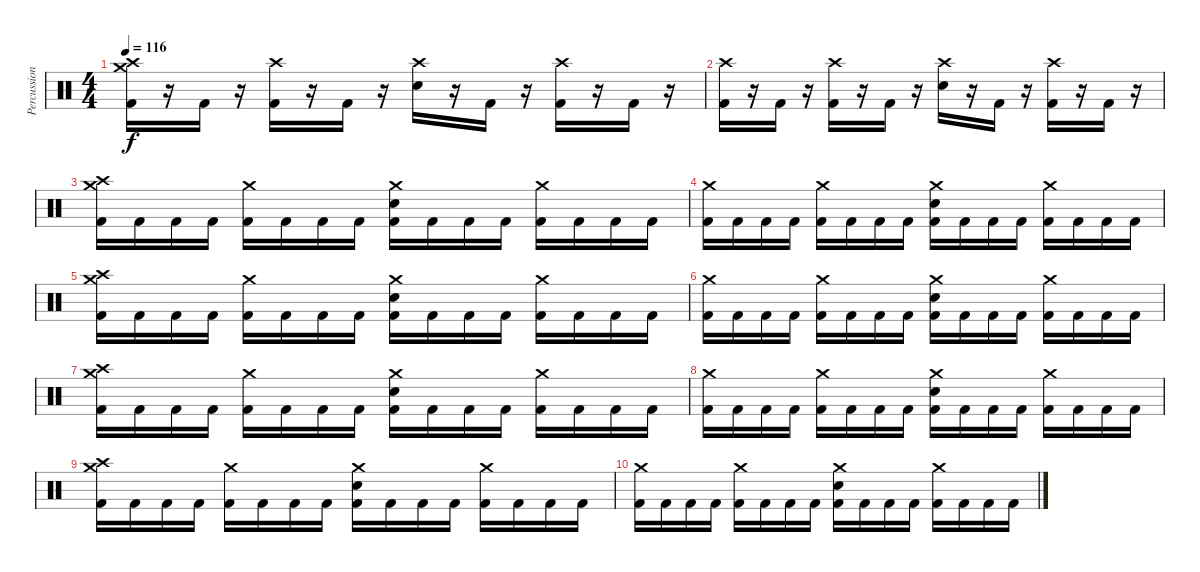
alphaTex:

\track ("Percussion" "Percussion") {instrument percussion}
\staff {score}
\articulation defaults
\ts (4 4)
\tempo 116
\clef neutral
\ks c
("Crash high (hit)" "Crash medium (hit)" "Kick (hit) 2").16{dy f} r.16 "Kick (hit) 2".16 r.16 ("Crash high (hit)" "Kick (hit) 2").16 r.16 "Kick (hit) 2".16 r.16 ("Crash high (hit)" "Electric Snare (hit)").16 r.16 "Kick (hit) 2".16 r.16 ("Crash high (hit)" "Kick (hit) 2").16 r.16 "Kick (hit) 2".16 r.16 |
("Crash high (hit)" "Kick (hit) 2").16 r.16 "Kick (hit) 2".16 r.16 ("Crash high (hit)" "Kick (hit) 2").16 r.16 "Kick (hit) 2".16 r.16 ("Crash high (hit)" "Electric Snare (hit)").16 r.16 "Kick (hit) 2".16 r.16 ("Crash high (hit)" "Kick (hit) 2").16 r.16 "Kick (hit) 2".16 r.16 |
("Crash high (hit)" "Crash medium (hit)" "Kick (hit) 2").16 "Kick (hit) 2".16 "Kick (hit) 2".16 "Kick (hit) 2".16 ("Crash medium (hit)" "Kick (hit) 2").16 "Kick (hit) 2".16 "Kick (hit) 2".16 "Kick (hit) 2".16 ("Crash medium (hit)" "Electric Snare (hit)" "Kick (hit) 2").16 "Kick (hit) 2".16 "Kick (hit) 2".16 "Kick (hit) 2".16 ("Crash medium (hit)" "Kick (hit) 2").16 "Kick (hit) 2".16 "Kick (hit) 2".16 "Kick (hit) 2".16 |
("Crash medium (hit)" "Kick (hit) 2").16 "Kick (hit) 2".16 "Kick (hit) 2".16 "Kick (hit) 2".16 ("Crash medium (hit)" "Kick (hit) 2").16 "Kick (hit) 2".16 "Kick (hit) 2".16 "Kick (hit) 2".16 ("Crash medium (hit)" "Electric Snare (hit)" "Kick (hit) 2").16 "Kick (hit) 2".16 "Kick (hit) 2".16 "Kick (hit) 2".16 ("Crash medium (hit)" "Kick (hit) 2").16 "Kick (hit) 2".16 "Kick (hit) 2".16 "Kick (hit) 2".16 |
("Crash high (hit)" "Crash medium (hit)" "Kick (hit) 2").16 "Kick (hit) 2".16 "Kick (hit) 2".16 "Kick (hit) 2".16 ("Crash medium (hit)" "Kick (hit) 2").16 "Kick (hit) 2".16 "Kick (hit) 2".16 "Kick (hit) 2".16 ("Crash medium (hit)" "Electric Snare (hit)" "Kick (hit) 2").16 "Kick (hit) 2".16 "Kick (hit) 2".16 "Kick (hit) 2".16 ("Crash medium (hit)" "Kick (hit) 2").16 "Kick (hit) 2".16 "Kick (hit) 2".16 "Kick (hit) 2".16 |
("Crash medium (hit)" "Kick (hit) 2").16 "Kick (hit) 2".16 "Kick (hit) 2".16 "Kick (hit) 2".16 ("Crash medium (hit)" "Kick (hit) 2").16 "Kick (hit) 2".16 "Kick (hit) 2".16 "Kick (hit) 2".16 ("Crash medium (hit)" "Electric Snare (hit)" "Kick (hit) 2").16 "Kick (hit) 2".16 "Kick (hit) 2".16 "Kick (hit) 2".16 ("Crash medium (hit)" "Kick (hit) 2").16 "Kick (hit) 2".16 "Kick (hit) 2".16 "Kick (hit) 2".16 |
("Crash high (hit)" "Crash medium (hit)" "Kick (hit) 2").16 "Kick (hit) 2".16 "Kick (hit) 2".16 "Kick (hit) 2".16 ("Crash medium (hit)" "Kick (hit) 2").16 "Kick (hit) 2".16 "Kick (hit) 2".16 "Kick (hit) 2".16 ("Crash medium (hit)" "Electric Snare (hit)" "Kick (hit) 2").16 "Kick (hit) 2".16 "Kick (hit) 2".16 "Kick (hit) 2".16 ("Crash medium (hit)" "Kick (hit) 2").16 "Kick (hit) 2".16 "Kick (hit) 2".16 "Kick (hit) 2".16 |
("Crash medium (hit)" "Kick (hit) 2").16 "Kick (hit) 2".16 "Kick (hit) 2".16 "Kick (hit) 2".16 ("Crash medium (hit)" "Kick (hit) 2").16 "Kick (hit) 2".16 "Kick (hit) 2".16 "Kick (hit) 2".16 ("Crash medium (hit)" "Electric Snare (hit)" "Kick (hit) 2").16 "Kick (hit) 2".16 "Kick (hit) 2".16 "Kick (hit) 2".16 ("Crash medium (hit)" "Kick (hit) 2").16 "Kick (hit) 2".16 "Kick (hit) 2".16 "Kick (hit) 2".16 |
("Crash high (hit)" "Crash medium (hit)" "Kick (hit) 2").16 "Kick (hit) 2".16 "Kick (hit) 2".16 "Kick (hit) 2".16 ("Crash medium (hit)" "Kick (hit) 2").16 "Kick (hit) 2".16 "Kick (hit) 2".16 "Kick (hit) 2".16 ("Crash medium (hit)" "Electric Snare (hit)" "Kick (hit) 2").16 "Kick (hit) 2".16 "Kick (hit) 2".16 "Kick (hit) 2".16 ("Crash medium (hit)" "Kick (hit) 2").16 "Kick (hit) 2".16 "Kick (hit) 2".16 "Kick (hit) 2".16 |
("Crash medium (hit)" "Kick (hit) 2").16 "Kick (hit) 2".16 "Kick (hit) 2".16 "Kick (hit) 2".16 ("Crash medium (hit)" "Kick (hit) 2").16 "Kick (hit) 2".16 "Kick (hit) 2".16 "Kick (hit) 2".16 ("Crash medium (hit)" "Electric Snare (hit)" "Kick (hit) 2").16 "Kick (hit) 2".16 "Kick (hit) 2".16 "Kick (hit) 2".16 ("Crash medium (hit)" "Kick (hit) 2").16 "Kick (hit) 2".16 "Kick (hit) 2".16 "Kick (hit) 2".16
